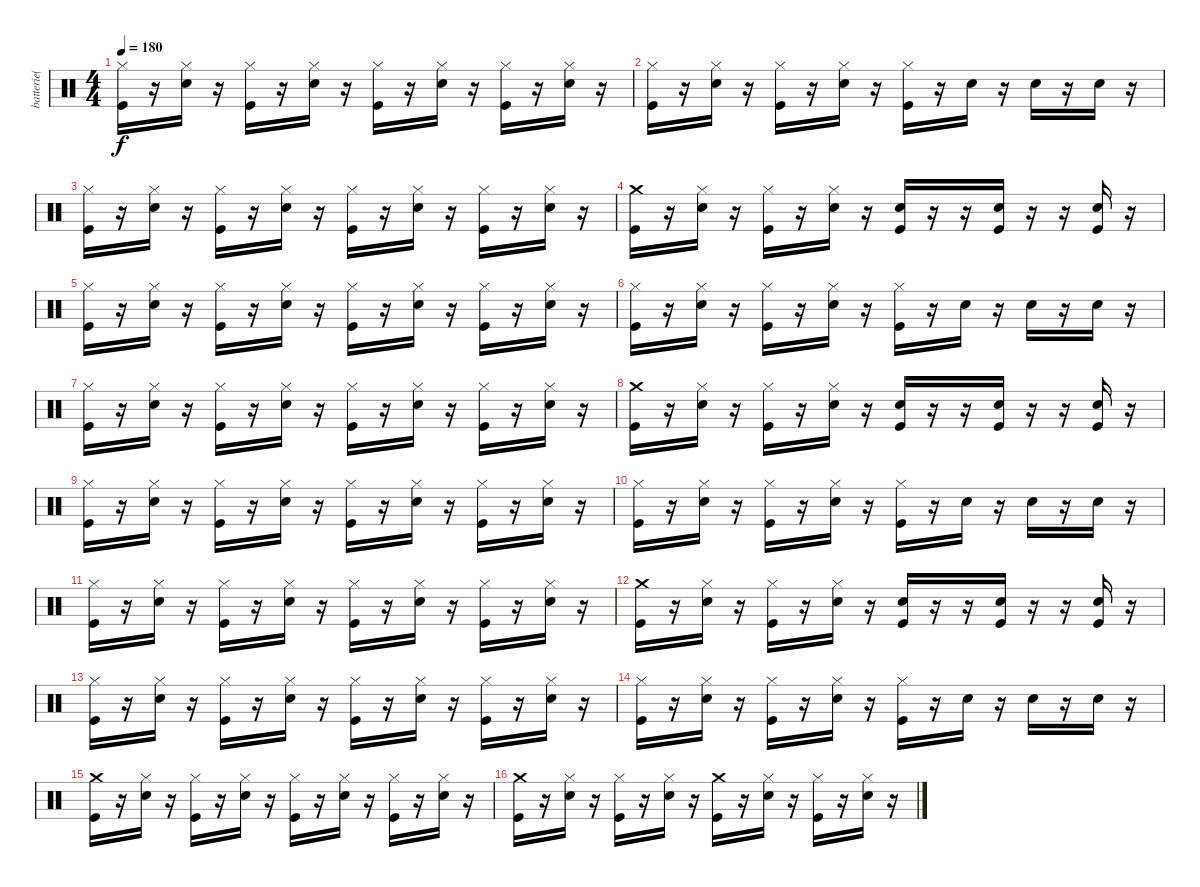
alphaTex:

\track ("batterie( Shawn )" "batterie( ") {instrument percussion}
\staff {score}
\articulation defaults
\ts (4 4)
\tempo 180
\clef neutral
\ks c
("Hi-Hat (closed)" "Kick (hit)").16{dy f} r.16 ("Hi-Hat (closed)" "Snare (hit) 2").16 r.16 ("Hi-Hat (closed)" "Kick (hit)").16 r.16 ("Hi-Hat (closed)" "Snare (hit) 2").16 r.16 ("Hi-Hat (closed)" "Kick (hit)").16 r.16 ("Hi-Hat (closed)" "Snare (hit) 2").16 r.16 ("Hi-Hat (closed)" "Kick (hit)").16 r.16 ("Hi-Hat (closed)" "Snare (hit) 2").16 r.16 |
("Hi-Hat (closed)" "Kick (hit)").16 r.16 ("Hi-Hat (closed)" "Snare (hit) 2").16 r.16 ("Hi-Hat (closed)" "Kick (hit)").16 r.16 ("Hi-Hat (closed)" "Snare (hit) 2").16 r.16 ("Hi-Hat (closed)" "Kick (hit)").16 r.16 "Snare (hit) 2".16 r.16 "Snare (hit) 2".16 r.16 "Snare (hit) 2".16 r.16 |
("Hi-Hat (closed)" "Kick (hit)").16 r.16 ("Hi-Hat (closed)" "Snare (hit) 2").16 r.16 ("Hi-Hat (closed)" "Kick (hit)").16 r.16 ("Hi-Hat (closed)" "Snare (hit) 2").16 r.16 ("Hi-Hat (closed)" "Kick (hit)").16 r.16 ("Hi-Hat (closed)" "Snare (hit) 2").16 r.16 ("Hi-Hat (closed)" "Kick (hit)").16 r.16 ("Hi-Hat (closed)" "Snare (hit) 2").16 r.16 |
("Crash medium (hit)" "Kick (hit)").16 r.16 ("Hi-Hat (closed)" "Snare (hit) 2").16 r.16 ("Hi-Hat (closed)" "Kick (hit)").16 r.16 ("Hi-Hat (closed)" "Snare (hit) 2").16 r.16 ("Snare (hit) 2" "Kick (hit)").16 r.16 r.16 ("Snare (hit) 2" "Kick (hit)").16 r.16 r.16 ("Snare (hit) 2" "Kick (hit)").16 r.16 |
("Hi-Hat (closed)" "Kick (hit)").16 r.16 ("Hi-Hat (closed)" "Snare (hit) 2").16 r.16 ("Hi-Hat (closed)" "Kick (hit)").16 r.16 ("Hi-Hat (closed)" "Snare (hit) 2").16 r.16 ("Hi-Hat (closed)" "Kick (hit)").16 r.16 ("Hi-Hat (closed)" "Snare (hit) 2").16 r.16 ("Hi-Hat (closed)" "Kick (hit)").16 r.16 ("Hi-Hat (closed)" "Snare (hit) 2").16 r.16 |
("Hi-Hat (closed)" "Kick (hit)").16 r.16 ("Hi-Hat (closed)" "Snare (hit) 2").16 r.16 ("Hi-Hat (closed)" "Kick (hit)").16 r.16 ("Hi-Hat (closed)" "Snare (hit) 2").16 r.16 ("Hi-Hat (closed)" "Kick (hit)").16 r.16 "Snare (hit) 2".16 r.16 "Snare (hit) 2".16 r.16 "Snare (hit) 2".16 r.16 |
("Hi-Hat (closed)" "Kick (hit)").16 r.16 ("Hi-Hat (closed)" "Snare (hit) 2").16 r.16 ("Hi-Hat (closed)" "Kick (hit)").16 r.16 ("Hi-Hat (closed)" "Snare (hit) 2").16 r.16 ("Hi-Hat (closed)" "Kick (hit)").16 r.16 ("Hi-Hat (closed)" "Snare (hit) 2").16 r.16 ("Hi-Hat (closed)" "Kick (hit)").16 r.16 ("Hi-Hat (closed)" "Snare (hit) 2").16 r.16 |
("Crash medium (hit)" "Kick (hit)").16 r.16 ("Hi-Hat (closed)" "Snare (hit) 2").16 r.16 ("Hi-Hat (closed)" "Kick (hit)").16 r.16 ("Hi-Hat (closed)" "Snare (hit) 2").16 r.16 ("Snare (hit) 2" "Kick (hit)").16 r.16 r.16 ("Snare (hit) 2" "Kick (hit)").16 r.16 r.16 ("Snare (hit) 2" "Kick (hit)").16 r.16 |
("Hi-Hat (closed)" "Kick (hit)").16 r.16 ("Hi-Hat (closed)" "Snare (hit) 2").16 r.16 ("Hi-Hat (closed)" "Kick (hit)").16 r.16 ("Hi-Hat (closed)" "Snare (hit) 2").16 r.16 ("Hi-Hat (closed)" "Kick (hit)").16 r.16 ("Hi-Hat (closed)" "Snare (hit) 2").16 r.16 ("Hi-Hat (closed)" "Kick (hit)").16 r.16 ("Hi-Hat (closed)" "Snare (hit) 2").16 r.16 |
("Hi-Hat (closed)" "Kick (hit)").16 r.16 ("Hi-Hat (closed)" "Snare (hit) 2").16 r.16 ("Hi-Hat (closed)" "Kick (hit)").16 r.16 ("Hi-Hat (closed)" "Snare (hit) 2").16 r.16 ("Hi-Hat (closed)" "Kick (hit)").16 r.16 "Snare (hit) 2".16 r.16 "Snare (hit) 2".16 r.16 "Snare (hit) 2".16 r.16 |
("Hi-Hat (closed)" "Kick (hit)").16 r.16 ("Hi-Hat (closed)" "Snare (hit) 2").16 r.16 ("Hi-Hat (closed)" "Kick (hit)").16 r.16 ("Hi-Hat (closed)" "Snare (hit) 2").16 r.16 ("Hi-Hat (closed)" "Kick (hit)").16 r.16 ("Hi-Hat (closed)" "Snare (hit) 2").16 r.16 ("Hi-Hat (closed)" "Kick (hit)").16 r.16 ("Hi-Hat (closed)" "Snare (hit) 2").16 r.16 |
("Crash medium (hit)" "Kick (hit)").16 r.16 ("Hi-Hat (closed)" "Snare (hit) 2").16 r.16 ("Hi-Hat (closed)" "Kick (hit)").16 r.16 ("Hi-Hat (closed)" "Snare (hit) 2").16 r.16 ("Snare (hit) 2" "Kick (hit)").16 r.16 r.16 ("Snare (hit) 2" "Kick (hit)").16 r.16 r.16 ("Snare (hit) 2" "Kick (hit)").16 r.16 |
("Hi-Hat (closed)" "Kick (hit)").16 r.16 ("Hi-Hat (closed)" "Snare (hit) 2").16 r.16 ("Hi-Hat (closed)" "Kick (hit)").16 r.16 ("Hi-Hat (closed)" "Snare (hit) 2").16 r.16 ("Hi-Hat (closed)" "Kick (hit)").16 r.16 ("Hi-Hat (closed)" "Snare (hit) 2").16 r.16 ("Hi-Hat (closed)" "Kick (hit)").16 r.16 ("Hi-Hat (closed)" "Snare (hit) 2").16 r.16 |
("Hi-Hat (closed)" "Kick (hit)").16 r.16 ("Hi-Hat (closed)" "Snare (hit) 2").16 r.16 ("Hi-Hat (closed)" "Kick (hit)").16 r.16 ("Hi-Hat (closed)" "Snare (hit) 2").16 r.16 ("Hi-Hat (closed)" "Kick (hit)").16 r.16 "Snare (hit) 2".16 r.16 "Snare (hit) 2".16 r.16 "Snare (hit) 2".16 r.16 |
("Crash medium (hit)" "Kick (hit)").16 r.16 ("Hi-Hat (closed)" "Snare (hit) 2").16 r.16 ("Hi-Hat (closed)" "Kick (hit)").16 r.16 ("Hi-Hat (closed)" "Snare (hit) 2").16 r.16 ("Hi-Hat (closed)" "Kick (hit)").16 r.16 ("Hi-Hat (closed)" "Snare (hit) 2").16 r.16 ("Hi-Hat (closed)" "Kick (hit)").16 r.16 ("Hi-Hat (closed)" "Snare (hit) 2").16 r.16 |
("Crash medium (hit)" "Kick (hit)").16 r.16 ("Hi-Hat (closed)" "Snare (hit) 2").16 r.16 ("Hi-Hat (closed)" "Kick (hit)").16 r.16 ("Hi-Hat (closed)" "Snare (hit) 2").16 r.16 ("Crash medium (hit)" "Kick (hit)").16 r.16 ("Hi-Hat (closed)" "Snare (hit) 2").16 r.16 ("Hi-Hat (closed)" "Kick (hit)").16 r.16 ("Hi-Hat (closed)" "Snare (hit) 2").16 r.16
